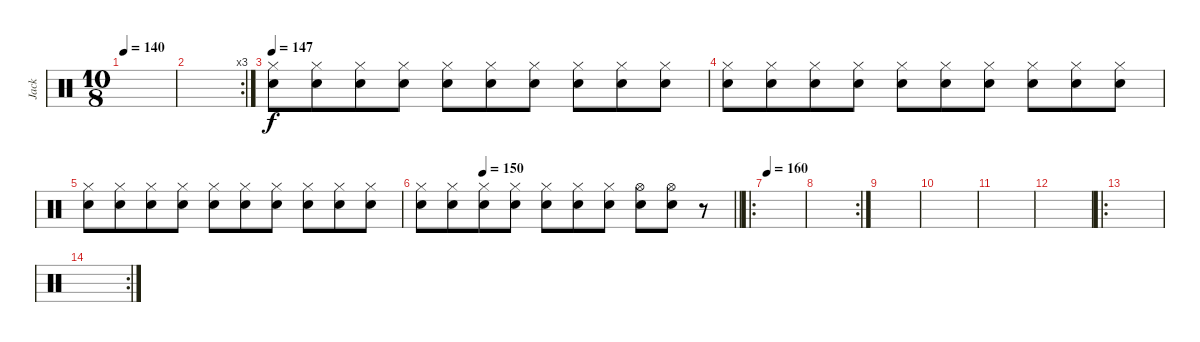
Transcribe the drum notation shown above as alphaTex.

\track ("Jack" "Jack") {instrument percussion}
\staff {score}
\articulation defaults
\ts (10 8)
\tempo 140
\clef neutral
\ks c
|
\rc 3
|
\tempo 147
("Hi-Hat (closed)" "Snare (hit) 2").8{volume 4} ("Hi-Hat (closed)" "Snare (hit) 2").8 ("Hi-Hat (closed)" "Snare (hit) 2").8 ("Hi-Hat (closed)" "Snare (hit) 2").8 ("Hi-Hat (closed)" "Snare (hit) 2").8 ("Hi-Hat (closed)" "Snare (hit) 2").8 ("Hi-Hat (closed)" "Snare (hit) 2").8 ("Hi-Hat (closed)" "Snare (hit) 2").8 ("Hi-Hat (closed)" "Snare (hit) 2").8 ("Hi-Hat (closed)" "Snare (hit) 2").8 |
("Hi-Hat (closed)" "Snare (hit) 2").8 ("Hi-Hat (closed)" "Snare (hit) 2").8 ("Hi-Hat (closed)" "Snare (hit) 2").8 ("Hi-Hat (closed)" "Snare (hit) 2").8 ("Hi-Hat (closed)" "Snare (hit) 2").8 ("Hi-Hat (closed)" "Snare (hit) 2").8 ("Hi-Hat (closed)" "Snare (hit) 2").8 ("Hi-Hat (closed)" "Snare (hit) 2").8 ("Hi-Hat (closed)" "Snare (hit) 2").8 ("Hi-Hat (closed)" "Snare (hit) 2").8 |
("Hi-Hat (closed)" "Snare (hit) 2").8 ("Hi-Hat (closed)" "Snare (hit) 2").8 ("Hi-Hat (closed)" "Snare (hit) 2").8 ("Hi-Hat (closed)" "Snare (hit) 2").8 ("Hi-Hat (closed)" "Snare (hit) 2").8 ("Hi-Hat (closed)" "Snare (hit) 2").8 ("Hi-Hat (closed)" "Snare (hit) 2").8 ("Hi-Hat (closed)" "Snare (hit) 2").8 ("Hi-Hat (closed)" "Snare (hit) 2").8 ("Hi-Hat (closed)" "Snare (hit) 2").8 |
\tempo (150 0.2)
\barLineRight lightlight
("Hi-Hat (closed)" "Snare (hit) 2").8 ("Hi-Hat (closed)" "Snare (hit) 2").8 ("Hi-Hat (closed)" "Snare (hit) 2").8{volume 7} ("Hi-Hat (closed)" "Snare (hit) 2").8 ("Hi-Hat (closed)" "Snare (hit) 2").8 ("Hi-Hat (closed)" "Snare (hit) 2").8 ("Hi-Hat (closed)" "Snare (hit) 2").8 ("Hi-Hat (open)" "Snare (hit) 2").8 ("Hi-Hat (open)" "Snare (hit) 2").8 r.8 |
\ro
\tempo 160
|
\rc 2
|
|
|
|
|
\ro
|
\rc 2
